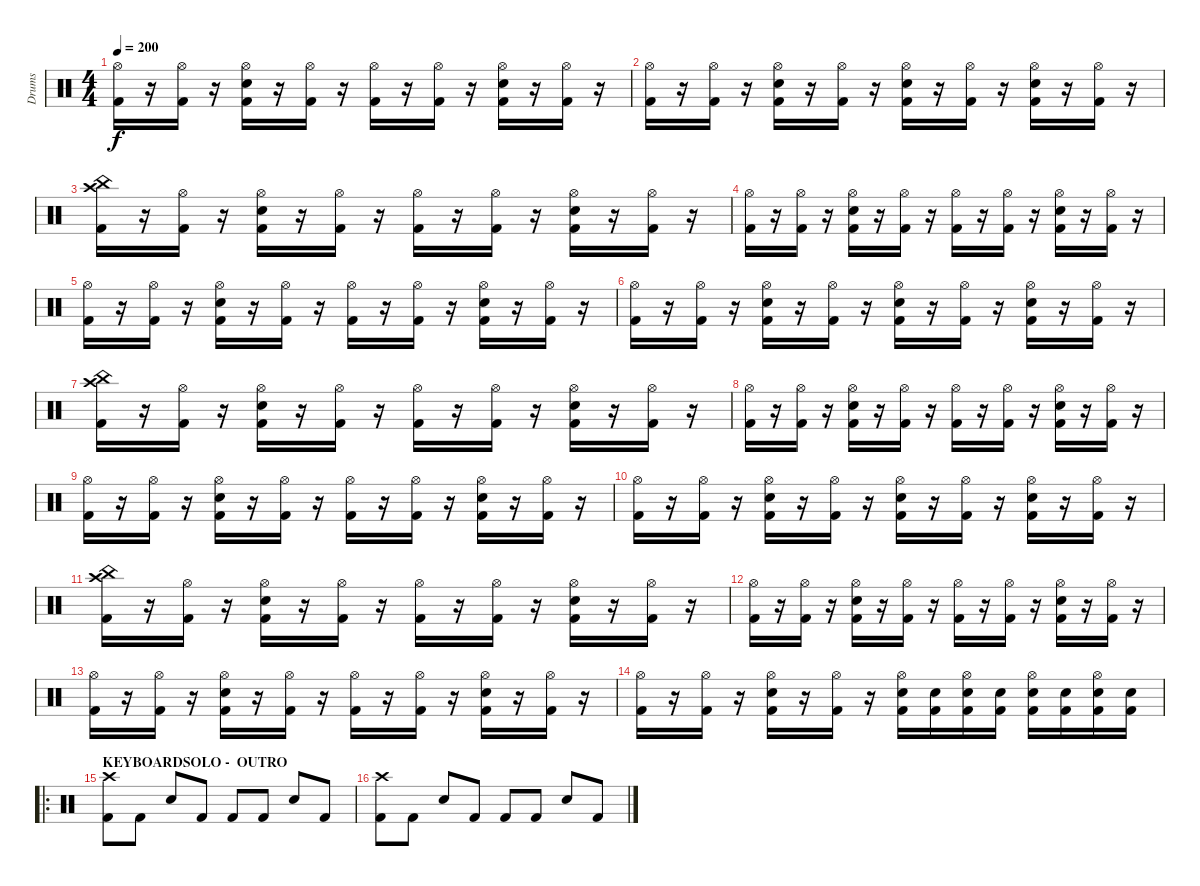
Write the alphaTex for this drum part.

\track ("Drums" "Drums") {instrument percussion}
\staff {score}
\articulation defaults
\ts (4 4)
\tempo 200
\clef neutral
\ks c
("Hi-Hat (open)" "Kick (hit) 2").16{dy f} r.16 ("Hi-Hat (open)" "Kick (hit) 2").16 r.16 ("Hi-Hat (open)" "Electric Snare (hit)" "Kick (hit) 2").16 r.16 ("Hi-Hat (open)" "Kick (hit) 2").16 r.16 ("Hi-Hat (open)" "Kick (hit) 2").16 r.16 ("Hi-Hat (open)" "Kick (hit) 2").16 r.16 ("Hi-Hat (open)" "Electric Snare (hit)" "Kick (hit) 2").16 r.16 ("Hi-Hat (open)" "Kick (hit) 2").16 r.16 |
("Hi-Hat (open)" "Kick (hit) 2").16 r.16 ("Hi-Hat (open)" "Kick (hit) 2").16 r.16 ("Hi-Hat (open)" "Electric Snare (hit)" "Kick (hit) 2").16 r.16 ("Hi-Hat (open)" "Kick (hit) 2").16 r.16 ("Hi-Hat (open)" "Electric Snare (hit)" "Kick (hit) 2").16 r.16 ("Hi-Hat (open)" "Kick (hit) 2").16 r.16 ("Hi-Hat (open)" "Electric Snare (hit)" "Kick (hit) 2").16 r.16 ("Hi-Hat (open)" "Kick (hit) 2").16 r.16 |
("Crash high (hit)" "China (hit)" "Kick (hit) 2").16 r.16 ("Hi-Hat (open)" "Kick (hit) 2").16 r.16 ("Hi-Hat (open)" "Electric Snare (hit)" "Kick (hit) 2").16 r.16 ("Hi-Hat (open)" "Kick (hit) 2").16 r.16 ("Hi-Hat (open)" "Kick (hit) 2").16 r.16 ("Hi-Hat (open)" "Kick (hit) 2").16 r.16 ("Hi-Hat (open)" "Electric Snare (hit)" "Kick (hit) 2").16 r.16 ("Hi-Hat (open)" "Kick (hit) 2").16 r.16 |
("Hi-Hat (open)" "Kick (hit) 2").16 r.16 ("Hi-Hat (open)" "Kick (hit) 2").16 r.16 ("Hi-Hat (open)" "Electric Snare (hit)" "Kick (hit) 2").16 r.16 ("Hi-Hat (open)" "Kick (hit) 2").16 r.16 ("Hi-Hat (open)" "Kick (hit) 2").16 r.16 ("Hi-Hat (open)" "Kick (hit) 2").16 r.16 ("Hi-Hat (open)" "Electric Snare (hit)" "Kick (hit) 2").16 r.16 ("Hi-Hat (open)" "Kick (hit) 2").16 r.16 |
("Hi-Hat (open)" "Kick (hit) 2").16 r.16 ("Hi-Hat (open)" "Kick (hit) 2").16 r.16 ("Hi-Hat (open)" "Electric Snare (hit)" "Kick (hit) 2").16 r.16 ("Hi-Hat (open)" "Kick (hit) 2").16 r.16 ("Hi-Hat (open)" "Kick (hit) 2").16 r.16 ("Hi-Hat (open)" "Kick (hit) 2").16 r.16 ("Hi-Hat (open)" "Electric Snare (hit)" "Kick (hit) 2").16 r.16 ("Hi-Hat (open)" "Kick (hit) 2").16 r.16 |
("Hi-Hat (open)" "Kick (hit) 2").16 r.16 ("Hi-Hat (open)" "Kick (hit) 2").16 r.16 ("Hi-Hat (open)" "Electric Snare (hit)" "Kick (hit) 2").16 r.16 ("Hi-Hat (open)" "Kick (hit) 2").16 r.16 ("Hi-Hat (open)" "Electric Snare (hit)" "Kick (hit) 2").16 r.16 ("Hi-Hat (open)" "Kick (hit) 2").16 r.16 ("Hi-Hat (open)" "Electric Snare (hit)" "Kick (hit) 2").16 r.16 ("Hi-Hat (open)" "Kick (hit) 2").16 r.16 |
("Crash high (hit)" "China (hit)" "Kick (hit) 2").16 r.16 ("Hi-Hat (open)" "Kick (hit) 2").16 r.16 ("Hi-Hat (open)" "Electric Snare (hit)" "Kick (hit) 2").16 r.16 ("Hi-Hat (open)" "Kick (hit) 2").16 r.16 ("Hi-Hat (open)" "Kick (hit) 2").16 r.16 ("Hi-Hat (open)" "Kick (hit) 2").16 r.16 ("Hi-Hat (open)" "Electric Snare (hit)" "Kick (hit) 2").16 r.16 ("Hi-Hat (open)" "Kick (hit) 2").16 r.16 |
("Hi-Hat (open)" "Kick (hit) 2").16 r.16 ("Hi-Hat (open)" "Kick (hit) 2").16 r.16 ("Hi-Hat (open)" "Electric Snare (hit)" "Kick (hit) 2").16 r.16 ("Hi-Hat (open)" "Kick (hit) 2").16 r.16 ("Hi-Hat (open)" "Kick (hit) 2").16 r.16 ("Hi-Hat (open)" "Kick (hit) 2").16 r.16 ("Hi-Hat (open)" "Electric Snare (hit)" "Kick (hit) 2").16 r.16 ("Hi-Hat (open)" "Kick (hit) 2").16 r.16 |
("Hi-Hat (open)" "Kick (hit) 2").16 r.16 ("Hi-Hat (open)" "Kick (hit) 2").16 r.16 ("Hi-Hat (open)" "Electric Snare (hit)" "Kick (hit) 2").16 r.16 ("Hi-Hat (open)" "Kick (hit) 2").16 r.16 ("Hi-Hat (open)" "Kick (hit) 2").16 r.16 ("Hi-Hat (open)" "Kick (hit) 2").16 r.16 ("Hi-Hat (open)" "Electric Snare (hit)" "Kick (hit) 2").16 r.16 ("Hi-Hat (open)" "Kick (hit) 2").16 r.16 |
("Hi-Hat (open)" "Kick (hit) 2").16 r.16 ("Hi-Hat (open)" "Kick (hit) 2").16 r.16 ("Hi-Hat (open)" "Electric Snare (hit)" "Kick (hit) 2").16 r.16 ("Hi-Hat (open)" "Kick (hit) 2").16 r.16 ("Hi-Hat (open)" "Electric Snare (hit)" "Kick (hit) 2").16 r.16 ("Hi-Hat (open)" "Kick (hit) 2").16 r.16 ("Hi-Hat (open)" "Electric Snare (hit)" "Kick (hit) 2").16 r.16 ("Hi-Hat (open)" "Kick (hit) 2").16 r.16 |
("Crash high (hit)" "China (hit)" "Kick (hit) 2").16 r.16 ("Hi-Hat (open)" "Kick (hit) 2").16 r.16 ("Hi-Hat (open)" "Electric Snare (hit)" "Kick (hit) 2").16 r.16 ("Hi-Hat (open)" "Kick (hit) 2").16 r.16 ("Hi-Hat (open)" "Kick (hit) 2").16 r.16 ("Hi-Hat (open)" "Kick (hit) 2").16 r.16 ("Hi-Hat (open)" "Electric Snare (hit)" "Kick (hit) 2").16 r.16 ("Hi-Hat (open)" "Kick (hit) 2").16 r.16 |
("Hi-Hat (open)" "Kick (hit) 2").16 r.16 ("Hi-Hat (open)" "Kick (hit) 2").16 r.16 ("Hi-Hat (open)" "Electric Snare (hit)" "Kick (hit) 2").16 r.16 ("Hi-Hat (open)" "Kick (hit) 2").16 r.16 ("Hi-Hat (open)" "Kick (hit) 2").16 r.16 ("Hi-Hat (open)" "Kick (hit) 2").16 r.16 ("Hi-Hat (open)" "Electric Snare (hit)" "Kick (hit) 2").16 r.16 ("Hi-Hat (open)" "Kick (hit) 2").16 r.16 |
("Hi-Hat (open)" "Kick (hit) 2").16 r.16 ("Hi-Hat (open)" "Kick (hit) 2").16 r.16 ("Hi-Hat (open)" "Electric Snare (hit)" "Kick (hit) 2").16 r.16 ("Hi-Hat (open)" "Kick (hit) 2").16 r.16 ("Hi-Hat (open)" "Kick (hit) 2").16 r.16 ("Hi-Hat (open)" "Kick (hit) 2").16 r.16 ("Hi-Hat (open)" "Electric Snare (hit)" "Kick (hit) 2").16 r.16 ("Hi-Hat (open)" "Kick (hit) 2").16 r.16 |
("Hi-Hat (open)" "Kick (hit) 2").16 r.16 ("Hi-Hat (open)" "Kick (hit) 2").16 r.16 ("Hi-Hat (open)" "Electric Snare (hit)" "Kick (hit) 2").16 r.16 ("Hi-Hat (open)" "Kick (hit) 2").16 r.16 ("Hi-Hat (open)" "Electric Snare (hit)" "Kick (hit) 2").16 ("Electric Snare (hit)" "Kick (hit) 2").16 ("Hi-Hat (open)" "Electric Snare (hit)" "Kick (hit) 2").16 ("Electric Snare (hit)" "Kick (hit) 2").16 ("Hi-Hat (open)" "Electric Snare (hit)" "Kick (hit) 2").16 ("Electric Snare (hit)" "Kick (hit) 2").16 ("Hi-Hat (open)" "Electric Snare (hit)" "Kick (hit) 2").16 ("Electric Snare (hit)" "Kick (hit) 2").16 |
\ro
\section ("" "KEYBOARDSOLO -  OUTRO")
("Crash high (hit)" "Kick (hit) 2").8 "Kick (hit) 2".8 "Electric Snare (hit)".8 "Kick (hit) 2".8 "Kick (hit) 2".8 "Kick (hit) 2".8 "Electric Snare (hit)".8 "Kick (hit) 2".8 |
("Crash high (hit)" "Kick (hit) 2").8 "Kick (hit) 2".8 "Electric Snare (hit)".8 "Kick (hit) 2".8 "Kick (hit) 2".8 "Kick (hit) 2".8 "Electric Snare (hit)".8 "Kick (hit) 2".8
